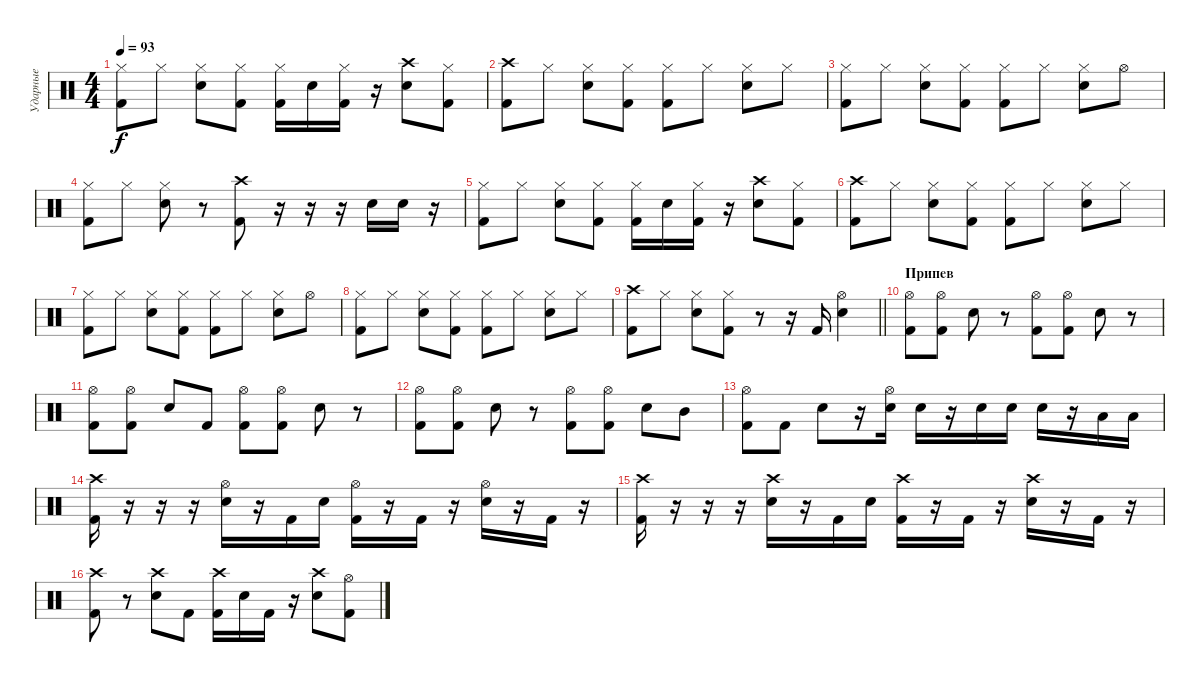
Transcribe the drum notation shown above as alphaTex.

\track ("Ударные" "Ударные") {instrument percussion}
\staff {score}
\articulation defaults
\ts (4 4)
\tempo 93
\clef neutral
\ks c
("Hi-Hat (closed)" "Kick (hit) 2").8{dy f} "Hi-Hat (closed)".8 ("Hi-Hat (closed)" "Electric Snare (hit)").8 ("Hi-Hat (closed)" "Kick (hit) 2").8 ("Hi-Hat (closed)" "Kick (hit) 2").16 "Electric Snare (hit)".16 ("Hi-Hat (closed)" "Kick (hit) 2").16 r.16 ("Crash high (hit)" "Electric Snare (hit)").8 ("Hi-Hat (closed)" "Kick (hit) 2").8 |
("Crash high (hit)" "Kick (hit) 2").8 "Hi-Hat (closed)".8 ("Hi-Hat (closed)" "Electric Snare (hit)").8 ("Hi-Hat (closed)" "Kick (hit) 2").8 ("Hi-Hat (closed)" "Kick (hit) 2").8 "Hi-Hat (closed)".8 ("Hi-Hat (closed)" "Electric Snare (hit)").8 "Hi-Hat (closed)".8 |
("Hi-Hat (closed)" "Kick (hit) 2").8 "Hi-Hat (closed)".8 ("Hi-Hat (closed)" "Electric Snare (hit)").8 ("Hi-Hat (closed)" "Kick (hit) 2").8 ("Hi-Hat (closed)" "Kick (hit) 2").8 "Hi-Hat (closed)".8 ("Hi-Hat (closed)" "Electric Snare (hit)").8 "Hi-Hat (open)".8 |
("Hi-Hat (closed)" "Kick (hit) 2").8 "Hi-Hat (closed)".8 ("Hi-Hat (closed)" "Electric Snare (hit)").8 r.8 ("Crash high (hit)" "Kick (hit) 2").8 r.16 r.16 r.16 "Electric Snare (hit)".16 "Electric Snare (hit)".16 r.16 |
("Hi-Hat (closed)" "Kick (hit) 2").8 "Hi-Hat (closed)".8 ("Hi-Hat (closed)" "Electric Snare (hit)").8 ("Hi-Hat (closed)" "Kick (hit) 2").8 ("Hi-Hat (closed)" "Kick (hit) 2").16 "Electric Snare (hit)".16 ("Hi-Hat (closed)" "Kick (hit) 2").16 r.16 ("Crash high (hit)" "Electric Snare (hit)").8 ("Hi-Hat (closed)" "Kick (hit) 2").8 |
("Crash high (hit)" "Kick (hit) 2").8 "Hi-Hat (closed)".8 ("Hi-Hat (closed)" "Electric Snare (hit)").8 ("Hi-Hat (closed)" "Kick (hit) 2").8 ("Hi-Hat (closed)" "Kick (hit) 2").8 "Hi-Hat (closed)".8 ("Hi-Hat (closed)" "Electric Snare (hit)").8 "Hi-Hat (closed)".8 |
("Hi-Hat (closed)" "Kick (hit) 2").8 "Hi-Hat (closed)".8 ("Hi-Hat (closed)" "Electric Snare (hit)").8 ("Hi-Hat (closed)" "Kick (hit) 2").8 ("Hi-Hat (closed)" "Kick (hit) 2").8 "Hi-Hat (closed)".8 ("Hi-Hat (closed)" "Electric Snare (hit)").8 "Hi-Hat (open)".8 |
("Hi-Hat (closed)" "Kick (hit) 2").8 "Hi-Hat (closed)".8 ("Hi-Hat (closed)" "Electric Snare (hit)").8 ("Hi-Hat (closed)" "Kick (hit) 2").8 ("Hi-Hat (closed)" "Kick (hit) 2").8 "Hi-Hat (closed)".8 ("Hi-Hat (closed)" "Electric Snare (hit)").8 "Hi-Hat (closed)".8 |
\barLineRight lightlight
("Crash high (hit)" "Kick (hit) 2").8 "Hi-Hat (closed)".8 ("Hi-Hat (closed)" "Electric Snare (hit)").8 ("Hi-Hat (closed)" "Kick (hit) 2").8 r.8 r.16 "Kick (hit) 2".16 ("Electric Snare (hit)" "Hi-Hat (open)").4 |
\section ("" "Припев")
("Hi-Hat (open)" "Kick (hit) 2").8 ("Hi-Hat (open)" "Kick (hit) 2").8 "Electric Snare (hit)".8 r.8 ("Hi-Hat (open)" "Kick (hit) 2").8 ("Hi-Hat (open)" "Kick (hit) 2").8 "Electric Snare (hit)".8 r.8 |
("Hi-Hat (open)" "Kick (hit) 2").8 ("Hi-Hat (open)" "Kick (hit) 2").8 "Electric Snare (hit)".8 "Kick (hit) 2".8 ("Hi-Hat (open)" "Kick (hit) 2").8 ("Hi-Hat (open)" "Kick (hit) 2").8 "Electric Snare (hit)".8 r.8 |
("Hi-Hat (open)" "Kick (hit) 2").8 ("Hi-Hat (open)" "Kick (hit) 2").8 "Electric Snare (hit)".8 r.8 ("Hi-Hat (open)" "Kick (hit) 2").8 ("Hi-Hat (open)" "Kick (hit) 2").8 "Electric Snare (hit)".8 "Mid Tom (hit)".8 |
("Hi-Hat (open)" "Kick (hit) 2").8 "Kick (hit) 2".8 "Electric Snare (hit)".8 r.16 ("Hi-Hat (open)" "Electric Snare (hit)").16 "Electric Snare (hit)".16 r.16 "Electric Snare (hit)".16 "Electric Snare (hit)".16 "Electric Snare (hit)".16 r.16 "Low Tom (hit)".16 "Low Tom (hit)".16 |
("Crash high (hit)" "Kick (hit) 2").16 r.16 r.16 r.16 ("Hi-Hat (open)" "Electric Snare (hit)").16 r.16 "Kick (hit) 2".16 "Electric Snare (hit)".16 ("Hi-Hat (open)" "Kick (hit) 2").16 r.16 "Kick (hit) 2".16 r.16 ("Hi-Hat (open)" "Electric Snare (hit)").16 r.16 "Kick (hit) 2".16 r.16 |
("Crash high (hit)" "Kick (hit) 2").16 r.16 r.16 r.16 ("Crash high (hit)" "Electric Snare (hit)").16 r.16 "Kick (hit) 2".16 "Electric Snare (hit)".16 ("Crash high (hit)" "Kick (hit) 2").16 r.16 "Kick (hit) 2".16 r.16 ("Crash high (hit)" "Electric Snare (hit)").16 r.16 "Kick (hit) 2".16 r.16 |
("Crash high (hit)" "Kick (hit) 2").8 r.8 ("Crash high (hit)" "Electric Snare (hit)").8 "Kick (hit) 2".8 ("Crash high (hit)" "Kick (hit) 2").16 "Electric Snare (hit)".16 "Kick (hit) 2".16 r.16 ("Crash high (hit)" "Electric Snare (hit)").8 ("Hi-Hat (open)" "Kick (hit) 2").8
